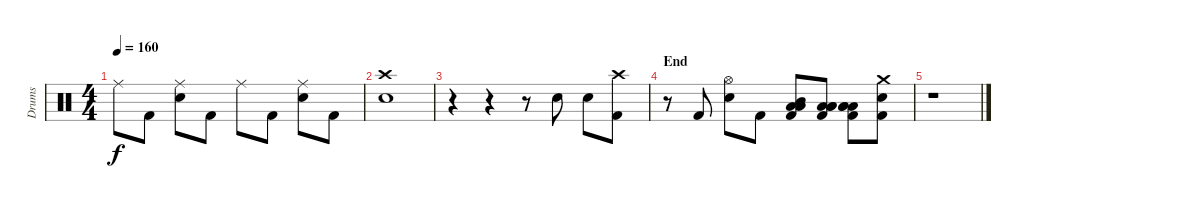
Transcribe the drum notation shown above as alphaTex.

\track ("Drums" "Drums") {instrument percussion}
\staff {score}
\articulation defaults
\ts (4 4)
\tempo 160
\clef neutral
\ks c "Ride (middle)".8{dy f} "Kick (hit) 2".8
("Ride (middle)" "Snare (hit) 2").8 "Kick (hit) 2".8 "Ride (middle)".8 "Kick (hit) 2".8 ("Ride (middle)" "Snare (hit) 2").8 "Kick (hit) 2".8 |
("Crash high (hit)" "Snare (hit) 2").1 |
r.4 r.4 r.8 "Snare (hit) 2".8 "Snare (hit) 2".8 ("Crash high (hit)" "Kick (hit) 2").8 |
\section ("" "End")
r.8 "Kick (hit) 2".8 ("Hi-Hat (open)" "Snare (hit) 2").8 "Kick (hit) 2".8 ("Mid Tom (hit)" "Low Floor Tom (hit)" "Low Floor Tom (hit)" "Kick (hit) 2").8 ("Low Tom (hit)" "Low Floor Tom (hit)" "Low Floor Tom (hit)" "Kick (hit) 2").8 ("Low Floor Tom (hit)" "Low Floor Tom (hit)" "Low Floor Tom (hit)" "Kick (hit) 2").8 ("Crash medium (hit)" "Snare (hit) 2" "Kick (hit) 2").8 |
r.1
